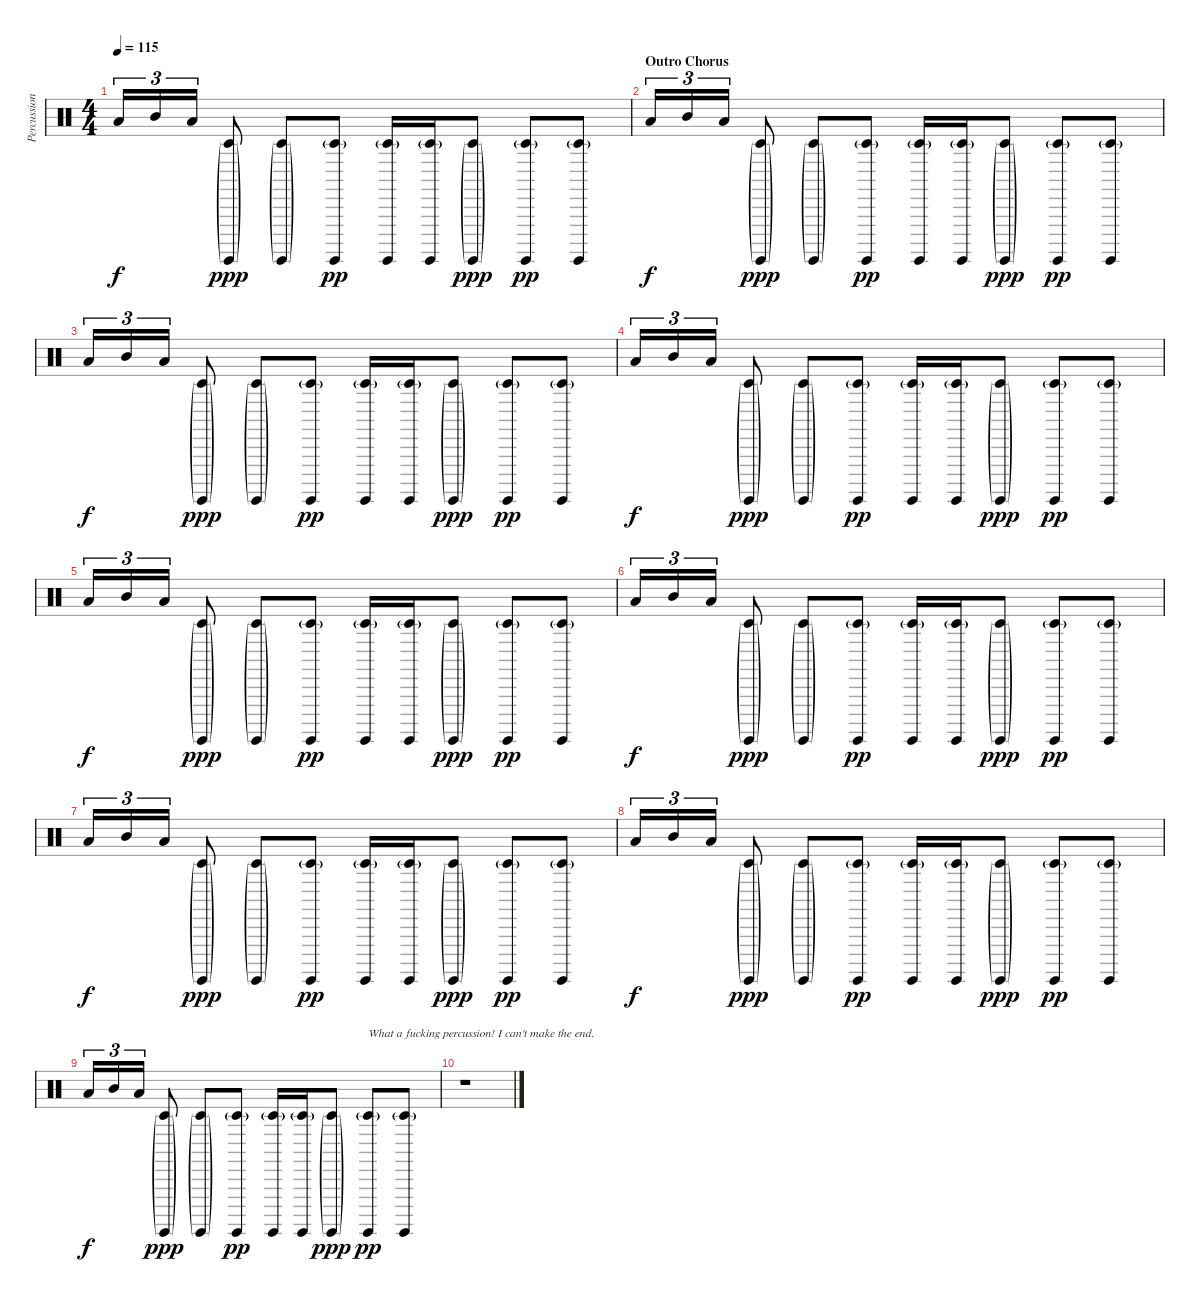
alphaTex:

\track ("Percussion - Low Tom" "Percussion") {instrument percussion}
\staff {score}
\articulation defaults
\ts (4 4)
\tempo 115
\clef neutral
\ks c "Low Tom (hit)".16{tu (3 2) dy f} "Mid Tom (hit)".16{tu (3 2)} "Low Tom (hit)".16{tu (3 2)}
("Timbale low (hit)"{g} "Surdo (hit)"{g}).8{dy ppp} ("Timbale low (hit)"{g} "Surdo (hit)"{g}).8 ("Timbale low (hit)"{g} "Surdo (hit)").8{dy pp} ("Timbale low (hit)"{g} "Surdo (hit)").16 ("Timbale low (hit)"{g} "Surdo (hit)").16 ("Timbale low (hit)"{g} "Surdo (hit)"{g}).8{dy ppp} ("Timbale low (hit)"{g} "Surdo (hit)").8{dy pp} ("Timbale low (hit)"{g} "Surdo (hit)").8 |
\section ("" "Outro Chorus")
"Low Tom (hit)".16{tu (3 2) dy f} "Mid Tom (hit)".16{tu (3 2)} "Low Tom (hit)".16{tu (3 2)} ("Timbale low (hit)"{g} "Surdo (hit)"{g}).8{dy ppp} ("Timbale low (hit)"{g} "Surdo (hit)"{g}).8 ("Timbale low (hit)"{g} "Surdo (hit)").8{dy pp} ("Timbale low (hit)"{g} "Surdo (hit)").16 ("Timbale low (hit)"{g} "Surdo (hit)").16 ("Timbale low (hit)"{g} "Surdo (hit)"{g}).8{dy ppp} ("Timbale low (hit)"{g} "Surdo (hit)").8{dy pp} ("Timbale low (hit)"{g} "Surdo (hit)").8 |
"Low Tom (hit)".16{tu (3 2) dy f} "Mid Tom (hit)".16{tu (3 2)} "Low Tom (hit)".16{tu (3 2)} ("Timbale low (hit)"{g} "Surdo (hit)"{g}).8{dy ppp} ("Timbale low (hit)"{g} "Surdo (hit)"{g}).8 ("Timbale low (hit)"{g} "Surdo (hit)").8{dy pp} ("Timbale low (hit)"{g} "Surdo (hit)").16 ("Timbale low (hit)"{g} "Surdo (hit)").16 ("Timbale low (hit)"{g} "Surdo (hit)"{g}).8{dy ppp} ("Timbale low (hit)"{g} "Surdo (hit)").8{dy pp} ("Timbale low (hit)"{g} "Surdo (hit)").8 |
"Low Tom (hit)".16{tu (3 2) dy f} "Mid Tom (hit)".16{tu (3 2)} "Low Tom (hit)".16{tu (3 2)} ("Timbale low (hit)"{g} "Surdo (hit)"{g}).8{dy ppp} ("Timbale low (hit)"{g} "Surdo (hit)"{g}).8 ("Timbale low (hit)"{g} "Surdo (hit)").8{dy pp} ("Timbale low (hit)"{g} "Surdo (hit)").16 ("Timbale low (hit)"{g} "Surdo (hit)").16 ("Timbale low (hit)"{g} "Surdo (hit)"{g}).8{dy ppp} ("Timbale low (hit)"{g} "Surdo (hit)").8{dy pp} ("Timbale low (hit)"{g} "Surdo (hit)").8 |
"Low Tom (hit)".16{tu (3 2) dy f} "Mid Tom (hit)".16{tu (3 2)} "Low Tom (hit)".16{tu (3 2)} ("Timbale low (hit)"{g} "Surdo (hit)"{g}).8{dy ppp} ("Timbale low (hit)"{g} "Surdo (hit)"{g}).8 ("Timbale low (hit)"{g} "Surdo (hit)").8{dy pp} ("Timbale low (hit)"{g} "Surdo (hit)").16 ("Timbale low (hit)"{g} "Surdo (hit)").16 ("Timbale low (hit)"{g} "Surdo (hit)"{g}).8{dy ppp} ("Timbale low (hit)"{g} "Surdo (hit)").8{dy pp} ("Timbale low (hit)"{g} "Surdo (hit)").8 |
"Low Tom (hit)".16{tu (3 2) dy f} "Mid Tom (hit)".16{tu (3 2)} "Low Tom (hit)".16{tu (3 2)} ("Timbale low (hit)"{g} "Surdo (hit)"{g}).8{dy ppp} ("Timbale low (hit)"{g} "Surdo (hit)"{g}).8 ("Timbale low (hit)"{g} "Surdo (hit)").8{dy pp} ("Timbale low (hit)"{g} "Surdo (hit)").16 ("Timbale low (hit)"{g} "Surdo (hit)").16 ("Timbale low (hit)"{g} "Surdo (hit)"{g}).8{dy ppp} ("Timbale low (hit)"{g} "Surdo (hit)").8{dy pp} ("Timbale low (hit)"{g} "Surdo (hit)").8 |
"Low Tom (hit)".16{tu (3 2) dy f} "Mid Tom (hit)".16{tu (3 2)} "Low Tom (hit)".16{tu (3 2)} ("Timbale low (hit)"{g} "Surdo (hit)"{g}).8{dy ppp} ("Timbale low (hit)"{g} "Surdo (hit)"{g}).8 ("Timbale low (hit)"{g} "Surdo (hit)").8{dy pp} ("Timbale low (hit)"{g} "Surdo (hit)").16 ("Timbale low (hit)"{g} "Surdo (hit)").16 ("Timbale low (hit)"{g} "Surdo (hit)"{g}).8{dy ppp} ("Timbale low (hit)"{g} "Surdo (hit)").8{dy pp} ("Timbale low (hit)"{g} "Surdo (hit)").8 |
"Low Tom (hit)".16{tu (3 2) dy f} "Mid Tom (hit)".16{tu (3 2)} "Low Tom (hit)".16{tu (3 2)} ("Timbale low (hit)"{g} "Surdo (hit)"{g}).8{dy ppp} ("Timbale low (hit)"{g} "Surdo (hit)"{g}).8 ("Timbale low (hit)"{g} "Surdo (hit)").8{dy pp} ("Timbale low (hit)"{g} "Surdo (hit)").16 ("Timbale low (hit)"{g} "Surdo (hit)").16 ("Timbale low (hit)"{g} "Surdo (hit)"{g}).8{dy ppp} ("Timbale low (hit)"{g} "Surdo (hit)").8{dy pp} ("Timbale low (hit)"{g} "Surdo (hit)").8 |
"Low Tom (hit)".16{tu (3 2) dy f} "Mid Tom (hit)".16{tu (3 2)} "Low Tom (hit)".16{tu (3 2)} ("Timbale low (hit)"{g} "Surdo (hit)"{g}).8{dy ppp} ("Timbale low (hit)"{g} "Surdo (hit)"{g}).8 ("Timbale low (hit)"{g} "Surdo (hit)").8{dy pp} ("Timbale low (hit)"{g} "Surdo (hit)").16 ("Timbale low (hit)"{g} "Surdo (hit)").16 ("Timbale low (hit)"{g} "Surdo (hit)"{g}).8{dy ppp} ("Timbale low (hit)"{g} "Surdo (hit)").8{txt "What a fucking percussion! I can't make the end." dy pp} ("Timbale low (hit)"{g} "Surdo (hit)").8 |
r.1
